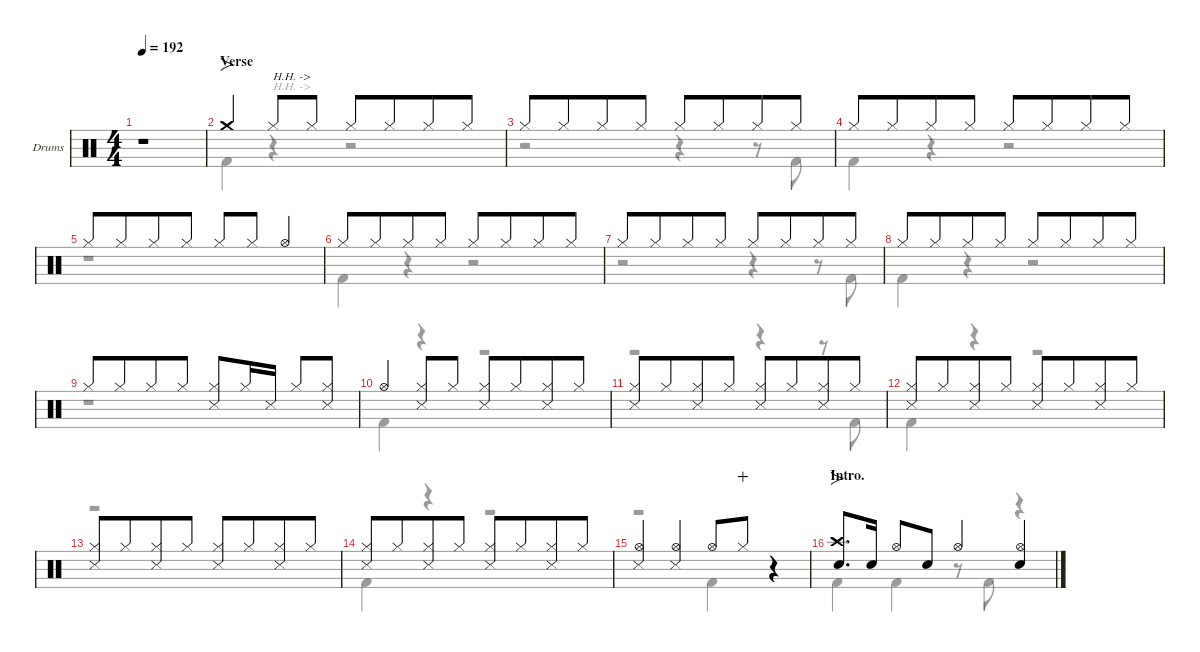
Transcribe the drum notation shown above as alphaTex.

\defaultSystemsLayout 4
\hideDynamics
\bracketExtendMode nobrackets
\firstSystemTrackNameOrientation horizontal
\track ("Drums" "Drums") {defaultSystemsLayout 4 instrument percussion}
\staff {score}
\articulation defaults
\voice
\ts (4 4)
\beaming (8 4 4)
\tempo 192
\clef neutral
\ks c
r.1{dy mf beam Up} |
\section ("" "Verse")
\scale
0.265908 "Crash medium (hit)".4{fo beam Up} "Hi-Hat (closed)".8{txt "H.H. ->" dy f beam Up} "Hi-Hat (closed)".8{dy mp beam Up} "Hi-Hat (closed)".8{dy f beam Up} "Hi-Hat (closed)".8{dy mp beam Up} "Hi-Hat (closed)".8{dy f beam Up} "Hi-Hat (closed)".8{dy mp beam Up} |
\scale
0.244697 "Hi-Hat (closed)".8{dy f beam Up} "Hi-Hat (closed)".8{dy mp beam Up} "Hi-Hat (closed)".8{dy f beam Up} "Hi-Hat (closed)".8{dy mp beam Up} "Hi-Hat (closed)".8{dy f beam Up} "Hi-Hat (closed)".8{dy mp beam Up} "Hi-Hat (closed)".8{dy f beam Up} "Hi-Hat (closed)".8{dy mp beam Up} |
\scale
0.244697 "Hi-Hat (closed)".8{dy f beam Up} "Hi-Hat (closed)".8{dy mp beam Up} "Hi-Hat (closed)".8{dy f beam Up} "Hi-Hat (closed)".8{dy mp beam Up} "Hi-Hat (closed)".8{dy f beam Up} "Hi-Hat (closed)".8{dy mp beam Up} "Hi-Hat (closed)".8{dy f beam Up} "Hi-Hat (closed)".8{dy mp beam Up} |
\scale
0.244697 "Hi-Hat (closed)".8{dy f beam Up} "Hi-Hat (closed)".8{dy mp beam Up} "Hi-Hat (closed)".8{dy f beam Up} "Hi-Hat (closed)".8{dy mp beam Up} "Hi-Hat (closed)".8{dy f beam Up} "Hi-Hat (closed)".8{dy mp beam Up} "Hi-Hat (open)".4{dy f beam Up} |
\scale
0.265908 "Hi-Hat (closed)".8{beam Up} "Hi-Hat (closed)".8{dy mp beam Up} "Hi-Hat (closed)".8{dy f beam Up} "Hi-Hat (closed)".8{dy mp beam Up} "Hi-Hat (closed)".8{dy f beam Up} "Hi-Hat (closed)".8{dy mp beam Up} "Hi-Hat (closed)".8{dy f beam Up} "Hi-Hat (closed)".8{dy mp beam Up} |
\scale
0.244697 "Hi-Hat (closed)".8{dy f beam Up} "Hi-Hat (closed)".8{dy mp beam Up} "Hi-Hat (closed)".8{dy f beam Up} "Hi-Hat (closed)".8{dy mp beam Up} "Hi-Hat (closed)".8{dy f beam Up} "Hi-Hat (closed)".8{dy mp beam Up} "Hi-Hat (closed)".8{dy f beam Up} "Hi-Hat (closed)".8{dy mp beam Up} |
\scale
0.244697 "Hi-Hat (closed)".8{dy f beam Up} "Hi-Hat (closed)".8{dy mp beam Up} "Hi-Hat (closed)".8{dy f beam Up} "Hi-Hat (closed)".8{dy mp beam Up} "Hi-Hat (closed)".8{dy f beam Up} "Hi-Hat (closed)".8{dy mp beam Up} "Hi-Hat (closed)".8{dy f beam Up} "Hi-Hat (closed)".8{dy mp beam Up} |
\scale
0.244697 "Hi-Hat (closed)".8{dy f beam Up} "Hi-Hat (closed)".8{dy mp beam Up} "Hi-Hat (closed)".8{dy f beam Up} "Hi-Hat (closed)".8{dy mp beam Up} ("Hi-Hat (closed)" "Metronome (hit)").8{dy f beam Up} "Hi-Hat (closed)".16{dy mp beam Up} "Metronome (hit)".16{dy f beam Up beam split} "Hi-Hat (closed)".8{beam Up} ("Metronome (hit)" "Hi-Hat (closed)").8{beam Up} |
\scale
0.265908 "Hi-Hat (open)".4{beam Up} ("Hi-Hat (closed)" "Metronome (hit)").8{beam Up} "Hi-Hat (closed)".8{dy mp beam Up} ("Hi-Hat (closed)" "Metronome (hit)").8{dy f beam Up} "Hi-Hat (closed)".8{dy mp beam Up} ("Hi-Hat (closed)" "Metronome (hit)").8{dy f beam Up} "Hi-Hat (closed)".8{dy mp beam Up} |
\scale
0.244697 ("Hi-Hat (closed)" "Metronome (hit)").8{dy f beam Up} "Hi-Hat (closed)".8{dy mp beam Up} ("Hi-Hat (closed)" "Metronome (hit)").8{dy f beam Up} "Hi-Hat (closed)".8{dy mp beam Up} ("Hi-Hat (closed)" "Metronome (hit)").8{dy f beam Up} "Hi-Hat (closed)".8{dy mp beam Up} ("Hi-Hat (closed)" "Metronome (hit)").8{dy f beam Up} "Hi-Hat (closed)".8{dy mp beam Up} |
\scale
0.244697 ("Hi-Hat (closed)" "Metronome (hit)").8{dy f beam Up} "Hi-Hat (closed)".8{dy mp beam Up} ("Hi-Hat (closed)" "Metronome (hit)").8{dy f beam Up} "Hi-Hat (closed)".8{dy mp beam Up} ("Hi-Hat (closed)" "Metronome (hit)").8{dy f beam Up} "Hi-Hat (closed)".8{dy mp beam Up} ("Hi-Hat (closed)" "Metronome (hit)").8{dy f beam Up} "Hi-Hat (closed)".8{dy mp beam Up} |
\scale
0.244697 ("Hi-Hat (closed)" "Metronome (hit)").8{dy f beam Up} "Hi-Hat (closed)".8{dy mp beam Up} ("Hi-Hat (closed)" "Metronome (hit)").8{dy f beam Up} "Hi-Hat (closed)".8{dy mp beam Up} ("Hi-Hat (closed)" "Metronome (hit)").8{dy f beam Up} "Hi-Hat (closed)".8{dy mp beam Up} ("Hi-Hat (closed)" "Metronome (hit)").8{dy f beam Up} "Hi-Hat (closed)".8{dy mp beam Up} |
\scale
0.510605 ("Hi-Hat (closed)" "Metronome (hit)").8{dy f beam Up} "Hi-Hat (closed)".8{dy mp beam Up} ("Hi-Hat (closed)" "Metronome (hit)").8{dy f beam Up} "Hi-Hat (closed)".8{dy mp beam Up} ("Hi-Hat (closed)" "Metronome (hit)").8{dy f beam Up} "Hi-Hat (closed)".8{dy mp beam Up} ("Hi-Hat (closed)" "Metronome (hit)").8{dy f beam Up} "Hi-Hat (closed)".8{dy mp beam Up} |
\scale
0.489395 ("Hi-Hat (open)" "Metronome (hit)").4{dy f beam Up} ("Hi-Hat (open)" "Metronome (hit)").4{beam Up} "Hi-Hat (open)".8{beam Up} "Hi-Hat (closed)".8{dy mp wahc beam Up} r.4{beam Up} |
\section ("" "Intro.")
\scale
0.265513 ("Crash high (hit)" "Snare (hit) 2").8{fo d dy f beam Up} "Snare (hit) 2".16{beam Up beam split} "Hi-Hat (open)".8{beam Up beam merge} "Snare (hit) 2".8{beam Up} "Hi-Hat (open)".4{beam Up} ("Hi-Hat (open)" "Snare (hit) 2").4{beam Up}
\voice
\clef neutral
\ottava regular
\simile none
\ks c
r.1{dy f beam Down} |
\scale
0.265908 "Kick (hit) 2".4{beam Down} r.4{txt "H.H. ->" beam Down} r.2{beam Down} |
\scale
0.244697 r.2{beam Down} r.4{beam Down} r.8{beam Down} "Kick (hit) 2".8{beam Down} |
\scale
0.244697 "Kick (hit) 2".4{beam Down} r.4{beam Down} r.2{beam Down} |
\scale
0.244697 r.1{beam Down} |
\scale
0.265908 "Kick (hit) 2".4{beam Down} r.4{beam Down} r.2{beam Down} |
\scale
0.244697 r.2{beam Down} r.4{beam Down} r.8{beam Down} "Kick (hit) 2".8{beam Down} |
\scale
0.244697 "Kick (hit) 2".4{beam Down} r.4{beam Down} r.2{beam Down} |
\scale
0.244697 r.1{beam Down} |
\scale
0.265908 "Kick (hit) 2".4{beam Down} r.4{beam Down} r.2{beam Down} |
\scale
0.244697 r.2{beam Down} r.4{beam Down} r.8{beam Down} "Kick (hit) 2".8{beam Down} |
\scale
0.244697 "Kick (hit) 2".4{beam Down} r.4{beam Down} r.2{beam Down} |
\scale
0.244697 r.1{beam Down} |
\scale
0.510605 "Kick (hit) 2".4{beam Down} r.4{beam Down} r.2{beam Down} |
\scale
0.489395 r.2{beam Down} "Kick (hit) 2".4{beam Down} r.4{beam Down} |
\scale
0.265513 "Kick (hit) 2".4{beam Down} "Kick (hit) 2".4{beam Down} r.8{beam Down} "Kick (hit) 2".8{beam Down} r.4{beam Down}
